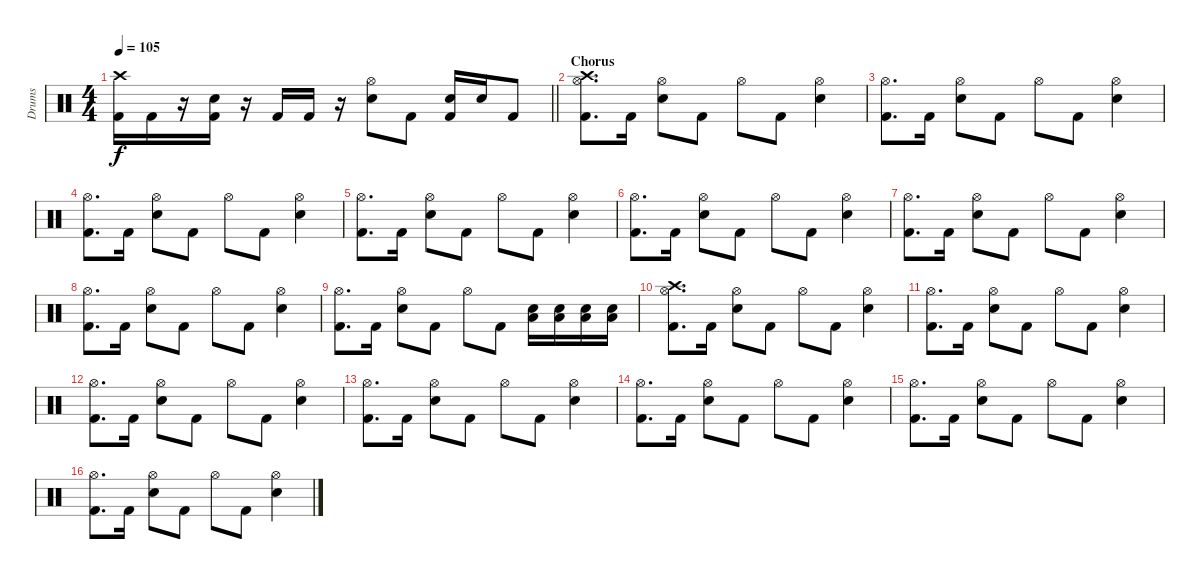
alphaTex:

\track ("Drums" "Drums") {instrument percussion}
\staff {score}
\articulation defaults
\ts (4 4)
\tempo 105
\clef neutral
\barLineRight lightlight
\ks aminor
("Crash high (hit)" "Kick (hit) 2").16{dy f} "Kick (hit) 2".16 r.16 ("Snare (hit) 2" "Kick (hit) 2").16 r.16 "Kick (hit) 2".16 "Kick (hit) 2".16 r.16 ("Snare (hit) 2" "Hi-Hat (open)").8 "Kick (hit) 2".8 ("Snare (hit) 2" "Kick (hit) 2").16 "Snare (hit) 2".16 "Kick (hit) 2".8 |
\section ("" "Chorus")
("Crash high (hit)" "Hi-Hat (open)" "Kick (hit) 2").8{d volume 10} "Kick (hit) 2".16 ("Snare (hit) 2" "Hi-Hat (open)").8 "Kick (hit) 2".8 "Hi-Hat (open)".8 "Kick (hit) 2".8 ("Snare (hit) 2" "Hi-Hat (open)").4 |
("Hi-Hat (open)" "Kick (hit) 2").8{d} "Kick (hit) 2".16 ("Snare (hit) 2" "Hi-Hat (open)").8 "Kick (hit) 2".8 "Hi-Hat (open)".8 "Kick (hit) 2".8 ("Snare (hit) 2" "Hi-Hat (open)").4 |
("Hi-Hat (open)" "Kick (hit) 2").8{d} "Kick (hit) 2".16 ("Snare (hit) 2" "Hi-Hat (open)").8 "Kick (hit) 2".8 "Hi-Hat (open)".8 "Kick (hit) 2".8 ("Snare (hit) 2" "Hi-Hat (open)").4 |
("Hi-Hat (open)" "Kick (hit) 2").8{d} "Kick (hit) 2".16 ("Snare (hit) 2" "Hi-Hat (open)").8 "Kick (hit) 2".8 "Hi-Hat (open)".8 "Kick (hit) 2".8 ("Snare (hit) 2" "Hi-Hat (open)").4 |
("Hi-Hat (open)" "Kick (hit) 2").8{d} "Kick (hit) 2".16 ("Snare (hit) 2" "Hi-Hat (open)").8 "Kick (hit) 2".8 "Hi-Hat (open)".8 "Kick (hit) 2".8 ("Snare (hit) 2" "Hi-Hat (open)").4 |
("Hi-Hat (open)" "Kick (hit) 2").8{d} "Kick (hit) 2".16 ("Snare (hit) 2" "Hi-Hat (open)").8 "Kick (hit) 2".8 "Hi-Hat (open)".8 "Kick (hit) 2".8 ("Snare (hit) 2" "Hi-Hat (open)").4 |
("Hi-Hat (open)" "Kick (hit) 2").8{d} "Kick (hit) 2".16 ("Snare (hit) 2" "Hi-Hat (open)").8 "Kick (hit) 2".8 "Hi-Hat (open)".8 "Kick (hit) 2".8 ("Snare (hit) 2" "Hi-Hat (open)").4 |
("Hi-Hat (open)" "Kick (hit) 2").8{d} "Kick (hit) 2".16 ("Snare (hit) 2" "Hi-Hat (open)").8 "Kick (hit) 2".8 "Hi-Hat (open)".8 "Kick (hit) 2".8 ("Snare (hit) 2" "Low Floor Tom (hit)").16 ("Snare (hit) 2" "Low Floor Tom (hit)").16 ("Snare (hit) 2" "Low Floor Tom (hit)").16 ("Snare (hit) 2" "Low Floor Tom (hit)").16 |
("Crash high (hit)" "Hi-Hat (open)" "Kick (hit) 2").8{d} "Kick (hit) 2".16 ("Snare (hit) 2" "Hi-Hat (open)").8 "Kick (hit) 2".8 "Hi-Hat (open)".8 "Kick (hit) 2".8 ("Snare (hit) 2" "Hi-Hat (open)").4 |
("Hi-Hat (open)" "Kick (hit) 2").8{d} "Kick (hit) 2".16 ("Snare (hit) 2" "Hi-Hat (open)").8 "Kick (hit) 2".8 "Hi-Hat (open)".8 "Kick (hit) 2".8 ("Snare (hit) 2" "Hi-Hat (open)").4 |
("Hi-Hat (open)" "Kick (hit) 2").8{d} "Kick (hit) 2".16 ("Snare (hit) 2" "Hi-Hat (open)").8 "Kick (hit) 2".8 "Hi-Hat (open)".8 "Kick (hit) 2".8 ("Snare (hit) 2" "Hi-Hat (open)").4 |
("Hi-Hat (open)" "Kick (hit) 2").8{d} "Kick (hit) 2".16 ("Snare (hit) 2" "Hi-Hat (open)").8 "Kick (hit) 2".8 "Hi-Hat (open)".8 "Kick (hit) 2".8 ("Snare (hit) 2" "Hi-Hat (open)").4 |
("Hi-Hat (open)" "Kick (hit) 2").8{d} "Kick (hit) 2".16 ("Snare (hit) 2" "Hi-Hat (open)").8 "Kick (hit) 2".8 "Hi-Hat (open)".8 "Kick (hit) 2".8 ("Snare (hit) 2" "Hi-Hat (open)").4 |
("Hi-Hat (open)" "Kick (hit) 2").8{d} "Kick (hit) 2".16 ("Snare (hit) 2" "Hi-Hat (open)").8 "Kick (hit) 2".8 "Hi-Hat (open)".8 "Kick (hit) 2".8 ("Snare (hit) 2" "Hi-Hat (open)").4 |
("Hi-Hat (open)" "Kick (hit) 2").8{d} "Kick (hit) 2".16 ("Snare (hit) 2" "Hi-Hat (open)").8 "Kick (hit) 2".8 "Hi-Hat (open)".8 "Kick (hit) 2".8 ("Snare (hit) 2" "Hi-Hat (open)").4
